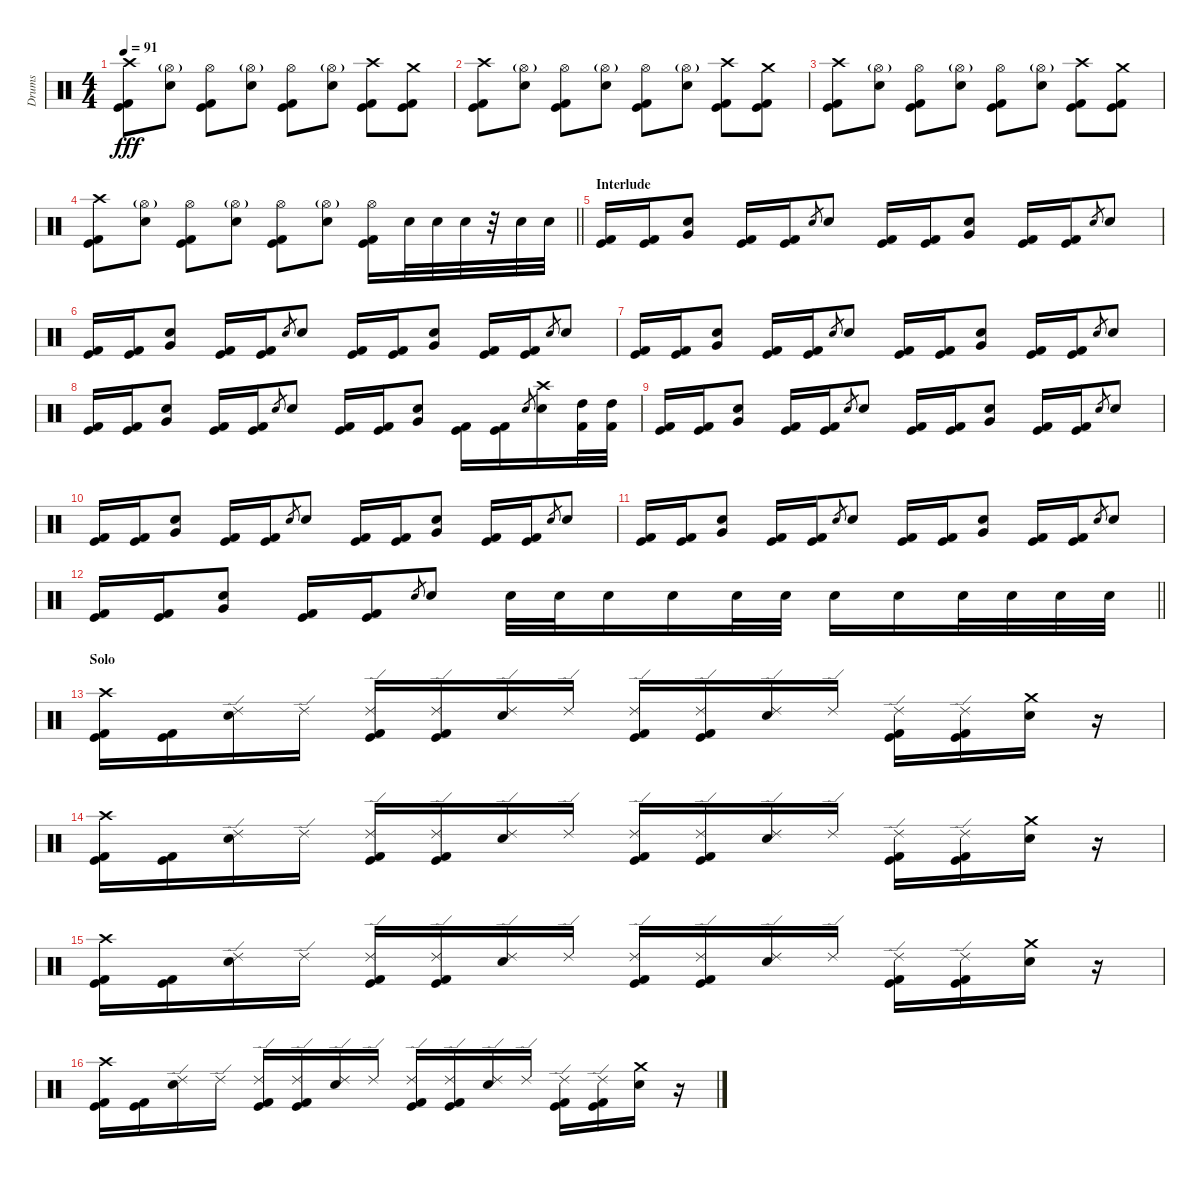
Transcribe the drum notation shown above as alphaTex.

\track ("Drums" "Drums") {instrument percussion}
\staff {score}
\articulation defaults
\ts (4 4)
\tempo 91
\clef neutral
\ks c
("Crash high (hit)" "Kick (hit)" "Kick (hit) 2").8{dy fff} ("Hi-Hat (open)"{g} "Electric Snare (hit)").8 ("Hi-Hat (open)" "Kick (hit)" "Kick (hit) 2").8 ("Hi-Hat (open)"{g} "Electric Snare (hit)").8 ("Hi-Hat (open)" "Kick (hit)" "Kick (hit) 2").8 ("Hi-Hat (open)"{g} "Electric Snare (hit)").8 ("Crash high (hit)" "Kick (hit)" "Kick (hit) 2").8 ("Crash medium (hit)" "Kick (hit)" "Kick (hit) 2").8 |
("Crash high (hit)" "Kick (hit)" "Kick (hit) 2").8 ("Hi-Hat (open)"{g} "Electric Snare (hit)").8 ("Hi-Hat (open)" "Kick (hit)" "Kick (hit) 2").8 ("Hi-Hat (open)"{g} "Electric Snare (hit)").8 ("Hi-Hat (open)" "Kick (hit)" "Kick (hit) 2").8 ("Hi-Hat (open)"{g} "Electric Snare (hit)").8 ("Crash high (hit)" "Kick (hit)" "Kick (hit) 2").8 ("Crash medium (hit)" "Kick (hit)" "Kick (hit) 2").8 |
("Crash high (hit)" "Kick (hit)" "Kick (hit) 2").8 ("Hi-Hat (open)"{g} "Electric Snare (hit)").8 ("Hi-Hat (open)" "Kick (hit)" "Kick (hit) 2").8 ("Hi-Hat (open)"{g} "Electric Snare (hit)").8 ("Hi-Hat (open)" "Kick (hit)" "Kick (hit) 2").8 ("Hi-Hat (open)"{g} "Electric Snare (hit)").8 ("Crash high (hit)" "Kick (hit)" "Kick (hit) 2").8 ("Crash medium (hit)" "Kick (hit)" "Kick (hit) 2").8 |
\barLineRight lightlight
("Crash high (hit)" "Kick (hit)" "Kick (hit) 2").8 ("Hi-Hat (open)"{g} "Electric Snare (hit)").8 ("Hi-Hat (open)" "Kick (hit)" "Kick (hit) 2").8 ("Hi-Hat (open)"{g} "Electric Snare (hit)").8 ("Hi-Hat (open)" "Kick (hit)" "Kick (hit) 2").8 ("Hi-Hat (open)"{g} "Electric Snare (hit)").8 ("Hi-Hat (open)" "Kick (hit)" "Kick (hit) 2").16 "Electric Snare (hit)".32 "Electric Snare (hit)".32 "Electric Snare (hit)".32 r.32 "Electric Snare (hit)".32 "Electric Snare (hit)".32 |
\section ("" "Interlude")
("Kick (hit)" "Kick (hit) 2").16 ("Kick (hit)" "Kick (hit) 2").16 ("Electric Snare (hit)" "Very Low Tom (hit)").8 ("Kick (hit)" "Kick (hit) 2").16 ("Kick (hit)" "Kick (hit) 2").16 "Electric Snare (hit)".8{gr} "Electric Snare (hit)".8 ("Kick (hit)" "Kick (hit) 2").16 ("Kick (hit)" "Kick (hit) 2").16 ("Electric Snare (hit)" "Very Low Tom (hit)").8 ("Kick (hit)" "Kick (hit) 2").16 ("Kick (hit)" "Kick (hit) 2").16 "Electric Snare (hit)".8{gr} "Electric Snare (hit)".8 |
("Kick (hit)" "Kick (hit) 2").16 ("Kick (hit)" "Kick (hit) 2").16 ("Electric Snare (hit)" "Very Low Tom (hit)").8 ("Kick (hit)" "Kick (hit) 2").16 ("Kick (hit)" "Kick (hit) 2").16 "Electric Snare (hit)".8{gr} "Electric Snare (hit)".8 ("Kick (hit)" "Kick (hit) 2").16 ("Kick (hit)" "Kick (hit) 2").16 ("Electric Snare (hit)" "Very Low Tom (hit)").8 ("Kick (hit)" "Kick (hit) 2").16 ("Kick (hit)" "Kick (hit) 2").16 "Electric Snare (hit)".8{gr} "Electric Snare (hit)".8 |
("Kick (hit)" "Kick (hit) 2").16 ("Kick (hit)" "Kick (hit) 2").16 ("Electric Snare (hit)" "Very Low Tom (hit)").8 ("Kick (hit)" "Kick (hit) 2").16 ("Kick (hit)" "Kick (hit) 2").16 "Electric Snare (hit)".8{gr} "Electric Snare (hit)".8 ("Kick (hit)" "Kick (hit) 2").16 ("Kick (hit)" "Kick (hit) 2").16 ("Electric Snare (hit)" "Very Low Tom (hit)").8 ("Kick (hit)" "Kick (hit) 2").16 ("Kick (hit)" "Kick (hit) 2").16 "Electric Snare (hit)".8{gr} "Electric Snare (hit)".8 |
("Kick (hit)" "Kick (hit) 2").16 ("Kick (hit)" "Kick (hit) 2").16 ("Electric Snare (hit)" "Very Low Tom (hit)").8 ("Kick (hit)" "Kick (hit) 2").16 ("Kick (hit)" "Kick (hit) 2").16 "Electric Snare (hit)".8{gr} "Electric Snare (hit)".8 ("Kick (hit)" "Kick (hit) 2").16 ("Kick (hit)" "Kick (hit) 2").16 ("Electric Snare (hit)" "Very Low Tom (hit)").8 ("Kick (hit)" "Kick (hit) 2").16 ("Kick (hit)" "Kick (hit) 2").16 "Electric Snare (hit)".8{gr} ("Crash high (hit)" "Electric Snare (hit)").16 ("High Tom (hit)" "Kick (hit) 2").32 ("High Tom (hit)" "Kick (hit) 2").32 |
("Kick (hit)" "Kick (hit) 2").16 ("Kick (hit)" "Kick (hit) 2").16 ("Electric Snare (hit)" "Very Low Tom (hit)").8 ("Kick (hit)" "Kick (hit) 2").16 ("Kick (hit)" "Kick (hit) 2").16 "Electric Snare (hit)".8{gr} "Electric Snare (hit)".8 ("Kick (hit)" "Kick (hit) 2").16 ("Kick (hit)" "Kick (hit) 2").16 ("Electric Snare (hit)" "Very Low Tom (hit)").8 ("Kick (hit)" "Kick (hit) 2").16 ("Kick (hit)" "Kick (hit) 2").16 "Electric Snare (hit)".8{gr} "Electric Snare (hit)".8 |
("Kick (hit)" "Kick (hit) 2").16 ("Kick (hit)" "Kick (hit) 2").16 ("Electric Snare (hit)" "Very Low Tom (hit)").8 ("Kick (hit)" "Kick (hit) 2").16 ("Kick (hit)" "Kick (hit) 2").16 "Electric Snare (hit)".8{gr} "Electric Snare (hit)".8 ("Kick (hit)" "Kick (hit) 2").16 ("Kick (hit)" "Kick (hit) 2").16 ("Electric Snare (hit)" "Very Low Tom (hit)").8 ("Kick (hit)" "Kick (hit) 2").16 ("Kick (hit)" "Kick (hit) 2").16 "Electric Snare (hit)".8{gr} "Electric Snare (hit)".8 |
("Kick (hit)" "Kick (hit) 2").16 ("Kick (hit)" "Kick (hit) 2").16 ("Electric Snare (hit)" "Very Low Tom (hit)").8 ("Kick (hit)" "Kick (hit) 2").16 ("Kick (hit)" "Kick (hit) 2").16 "Electric Snare (hit)".8{gr} "Electric Snare (hit)".8 ("Kick (hit)" "Kick (hit) 2").16 ("Kick (hit)" "Kick (hit) 2").16 ("Electric Snare (hit)" "Very Low Tom (hit)").8 ("Kick (hit)" "Kick (hit) 2").16 ("Kick (hit)" "Kick (hit) 2").16 "Electric Snare (hit)".8{gr} "Electric Snare (hit)".8 |
\barLineRight lightlight
("Kick (hit)" "Kick (hit) 2").16 ("Kick (hit)" "Kick (hit) 2").16 ("Electric Snare (hit)" "Very Low Tom (hit)").8 ("Kick (hit)" "Kick (hit) 2").16 ("Kick (hit)" "Kick (hit) 2").16 "Electric Snare (hit)".8{gr} "Electric Snare (hit)".8 "Electric Snare (hit)".32 "Electric Snare (hit)".32 "Electric Snare (hit)".16 "Electric Snare (hit)".16 "Electric Snare (hit)".32 "Electric Snare (hit)".32 "Electric Snare (hit)".16 "Electric Snare (hit)".16 "Electric Snare (hit)".32 "Electric Snare (hit)".32 "Electric Snare (hit)".32 "Electric Snare (hit)".32 |
\section ("" "Solo")
("Crash high (hit)" "Kick (hit)" "Kick (hit) 2").16 ("Kick (hit)" "Kick (hit) 2").16 ("Ride (edge) 2" "Electric Snare (hit)").16 "Ride (edge) 2".16 ("Ride (edge) 2" "Kick (hit)" "Kick (hit) 2").16 ("Ride (edge) 2" "Kick (hit)" "Kick (hit) 2").16 ("Ride (edge) 2" "Electric Snare (hit)").16 "Ride (edge) 2".16 ("Ride (edge) 2" "Kick (hit)" "Kick (hit) 2").16 ("Ride (edge) 2" "Kick (hit)" "Kick (hit) 2").16 ("Ride (edge) 2" "Electric Snare (hit)").16 "Ride (edge) 2".16 ("Ride (edge) 2" "Kick (hit)" "Kick (hit) 2").16 ("Ride (edge) 2" "Kick (hit)" "Kick (hit) 2").16 ("Crash medium (hit)" "Electric Snare (hit)").16 r.16 |
("Crash high (hit)" "Kick (hit)" "Kick (hit) 2").16 ("Kick (hit)" "Kick (hit) 2").16 ("Ride (edge) 2" "Electric Snare (hit)").16 "Ride (edge) 2".16 ("Ride (edge) 2" "Kick (hit)" "Kick (hit) 2").16 ("Ride (edge) 2" "Kick (hit)" "Kick (hit) 2").16 ("Ride (edge) 2" "Electric Snare (hit)").16 "Ride (edge) 2".16 ("Ride (edge) 2" "Kick (hit)" "Kick (hit) 2").16 ("Ride (edge) 2" "Kick (hit)" "Kick (hit) 2").16 ("Ride (edge) 2" "Electric Snare (hit)").16 "Ride (edge) 2".16 ("Ride (edge) 2" "Kick (hit)" "Kick (hit) 2").16 ("Ride (edge) 2" "Kick (hit)" "Kick (hit) 2").16 ("Crash medium (hit)" "Electric Snare (hit)").16 r.16 |
("Crash high (hit)" "Kick (hit)" "Kick (hit) 2").16 ("Kick (hit)" "Kick (hit) 2").16 ("Ride (edge) 2" "Electric Snare (hit)").16 "Ride (edge) 2".16 ("Ride (edge) 2" "Kick (hit)" "Kick (hit) 2").16 ("Ride (edge) 2" "Kick (hit)" "Kick (hit) 2").16 ("Ride (edge) 2" "Electric Snare (hit)").16 "Ride (edge) 2".16 ("Ride (edge) 2" "Kick (hit)" "Kick (hit) 2").16 ("Ride (edge) 2" "Kick (hit)" "Kick (hit) 2").16 ("Ride (edge) 2" "Electric Snare (hit)").16 "Ride (edge) 2".16 ("Ride (edge) 2" "Kick (hit)" "Kick (hit) 2").16 ("Ride (edge) 2" "Kick (hit)" "Kick (hit) 2").16 ("Crash medium (hit)" "Electric Snare (hit)").16 r.16 |
("Crash high (hit)" "Kick (hit)" "Kick (hit) 2").16 ("Kick (hit)" "Kick (hit) 2").16 ("Ride (edge) 2" "Electric Snare (hit)").16 "Ride (edge) 2".16 ("Ride (edge) 2" "Kick (hit)" "Kick (hit) 2").16 ("Ride (edge) 2" "Kick (hit)" "Kick (hit) 2").16 ("Ride (edge) 2" "Electric Snare (hit)").16 "Ride (edge) 2".16 ("Ride (edge) 2" "Kick (hit)" "Kick (hit) 2").16 ("Ride (edge) 2" "Kick (hit)" "Kick (hit) 2").16 ("Ride (edge) 2" "Electric Snare (hit)").16 "Ride (edge) 2".16 ("Ride (edge) 2" "Kick (hit)" "Kick (hit) 2").16 ("Ride (edge) 2" "Kick (hit)" "Kick (hit) 2").16 ("Crash medium (hit)" "Electric Snare (hit)").16 r.16
